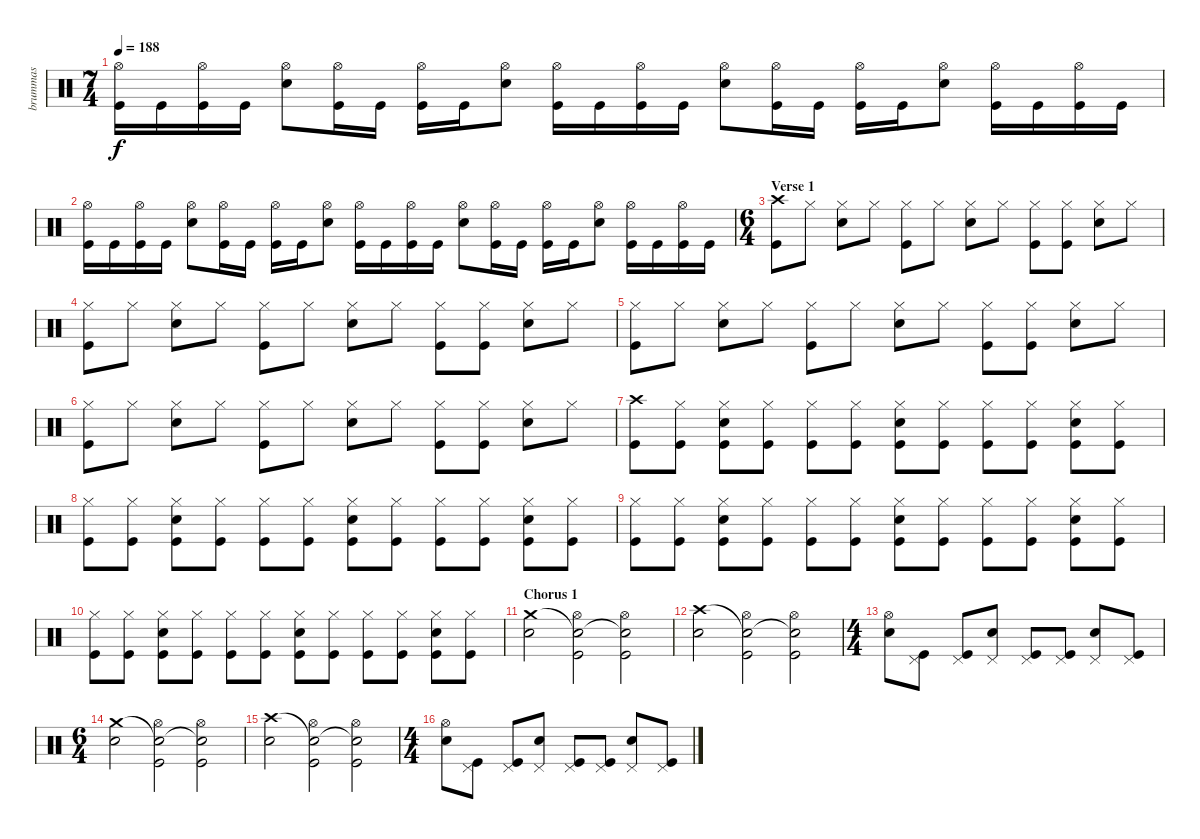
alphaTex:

\track ("brummas" "brummas") {instrument percussion}
\staff {score}
\articulation defaults
\ts (7 4)
\tempo 188
\clef neutral
\ks c
("Hi-Hat (open)" "Kick (hit)").16{dy f} "Kick (hit)".16 ("Hi-Hat (open)" "Kick (hit)").16 "Kick (hit)".16 ("Hi-Hat (open)" "Snare (hit) 2").8 ("Hi-Hat (open)" "Kick (hit)").16 "Kick (hit)".16 ("Hi-Hat (open)" "Kick (hit)").16 "Kick (hit)".16 ("Hi-Hat (open)" "Snare (hit) 2").8 ("Hi-Hat (open)" "Kick (hit)").16 "Kick (hit)".16 ("Hi-Hat (open)" "Kick (hit)").16 "Kick (hit)".16 ("Hi-Hat (open)" "Snare (hit) 2").8 ("Hi-Hat (open)" "Kick (hit)").16 "Kick (hit)".16 ("Hi-Hat (open)" "Kick (hit)").16 "Kick (hit)".16 ("Hi-Hat (open)" "Snare (hit) 2").8 ("Hi-Hat (open)" "Kick (hit)").16 "Kick (hit)".16 ("Hi-Hat (open)" "Kick (hit)").16 "Kick (hit)".16 |
("Hi-Hat (open)" "Kick (hit)").16 "Kick (hit)".16 ("Hi-Hat (open)" "Kick (hit)").16 "Kick (hit)".16 ("Hi-Hat (open)" "Snare (hit) 2").8 ("Hi-Hat (open)" "Kick (hit)").16 "Kick (hit)".16 ("Hi-Hat (open)" "Kick (hit)").16 "Kick (hit)".16 ("Hi-Hat (open)" "Snare (hit) 2").8 ("Hi-Hat (open)" "Kick (hit)").16 "Kick (hit)".16 ("Hi-Hat (open)" "Kick (hit)").16 "Kick (hit)".16 ("Hi-Hat (open)" "Snare (hit) 2").8 ("Hi-Hat (open)" "Kick (hit)").16 "Kick (hit)".16 ("Hi-Hat (open)" "Kick (hit)").16 "Kick (hit)".16 ("Hi-Hat (open)" "Snare (hit) 2").8 ("Hi-Hat (open)" "Kick (hit)").16 "Kick (hit)".16 ("Hi-Hat (open)" "Kick (hit)").16 "Kick (hit)".16 |
\ts (6 4)
\section ("" "Verse 1")
("Crash high (hit)" "Kick (hit)").8 "Hi-Hat (closed)".8 ("Hi-Hat (closed)" "Snare (hit) 2").8 "Hi-Hat (closed)".8 ("Hi-Hat (closed)" "Kick (hit)").8 "Hi-Hat (closed)".8 ("Hi-Hat (closed)" "Snare (hit) 2").8 "Hi-Hat (closed)".8 ("Hi-Hat (closed)" "Kick (hit)").8 ("Hi-Hat (closed)" "Kick (hit)").8 ("Hi-Hat (closed)" "Snare (hit) 2").8 "Hi-Hat (closed)".8 |
("Hi-Hat (closed)" "Kick (hit)").8 "Hi-Hat (closed)".8 ("Hi-Hat (closed)" "Snare (hit) 2").8 "Hi-Hat (closed)".8 ("Hi-Hat (closed)" "Kick (hit)").8 "Hi-Hat (closed)".8 ("Hi-Hat (closed)" "Snare (hit) 2").8 "Hi-Hat (closed)".8 ("Hi-Hat (closed)" "Kick (hit)").8 ("Hi-Hat (closed)" "Kick (hit)").8 ("Hi-Hat (closed)" "Snare (hit) 2").8 "Hi-Hat (closed)".8 |
("Hi-Hat (closed)" "Kick (hit)").8 "Hi-Hat (closed)".8 ("Hi-Hat (closed)" "Snare (hit) 2").8 "Hi-Hat (closed)".8 ("Hi-Hat (closed)" "Kick (hit)").8 "Hi-Hat (closed)".8 ("Hi-Hat (closed)" "Snare (hit) 2").8 "Hi-Hat (closed)".8 ("Hi-Hat (closed)" "Kick (hit)").8 ("Hi-Hat (closed)" "Kick (hit)").8 ("Hi-Hat (closed)" "Snare (hit) 2").8 "Hi-Hat (closed)".8 |
("Hi-Hat (closed)" "Kick (hit)").8 "Hi-Hat (closed)".8 ("Hi-Hat (closed)" "Snare (hit) 2").8 "Hi-Hat (closed)".8 ("Hi-Hat (closed)" "Kick (hit)").8 "Hi-Hat (closed)".8 ("Hi-Hat (closed)" "Snare (hit) 2").8 "Hi-Hat (closed)".8 ("Hi-Hat (closed)" "Kick (hit)").8 ("Hi-Hat (closed)" "Kick (hit)").8 ("Hi-Hat (closed)" "Snare (hit) 2").8 "Hi-Hat (closed)".8 |
("Crash high (hit)" "Kick (hit)").8 ("Hi-Hat (closed)" "Kick (hit)").8 ("Hi-Hat (closed)" "Snare (hit) 2" "Kick (hit)").8 ("Hi-Hat (closed)" "Kick (hit)").8 ("Hi-Hat (closed)" "Kick (hit)").8 ("Hi-Hat (closed)" "Kick (hit)").8 ("Hi-Hat (closed)" "Snare (hit) 2" "Kick (hit)").8 ("Hi-Hat (closed)" "Kick (hit)").8 ("Hi-Hat (closed)" "Kick (hit)").8 ("Hi-Hat (closed)" "Kick (hit)").8 ("Hi-Hat (closed)" "Snare (hit) 2" "Kick (hit)").8 ("Hi-Hat (closed)" "Kick (hit)").8 |
("Hi-Hat (closed)" "Kick (hit)").8 ("Hi-Hat (closed)" "Kick (hit)").8 ("Hi-Hat (closed)" "Snare (hit) 2" "Kick (hit)").8 ("Hi-Hat (closed)" "Kick (hit)").8 ("Hi-Hat (closed)" "Kick (hit)").8 ("Hi-Hat (closed)" "Kick (hit)").8 ("Hi-Hat (closed)" "Snare (hit) 2" "Kick (hit)").8 ("Hi-Hat (closed)" "Kick (hit)").8 ("Hi-Hat (closed)" "Kick (hit)").8 ("Hi-Hat (closed)" "Kick (hit)").8 ("Hi-Hat (closed)" "Snare (hit) 2" "Kick (hit)").8 ("Hi-Hat (closed)" "Kick (hit)").8 |
("Hi-Hat (closed)" "Kick (hit)").8 ("Hi-Hat (closed)" "Kick (hit)").8 ("Hi-Hat (closed)" "Snare (hit) 2" "Kick (hit)").8 ("Hi-Hat (closed)" "Kick (hit)").8 ("Hi-Hat (closed)" "Kick (hit)").8 ("Hi-Hat (closed)" "Kick (hit)").8 ("Hi-Hat (closed)" "Snare (hit) 2" "Kick (hit)").8 ("Hi-Hat (closed)" "Kick (hit)").8 ("Hi-Hat (closed)" "Kick (hit)").8 ("Hi-Hat (closed)" "Kick (hit)").8 ("Hi-Hat (closed)" "Snare (hit) 2" "Kick (hit)").8 ("Hi-Hat (closed)" "Kick (hit)").8 |
("Hi-Hat (closed)" "Kick (hit)").8 ("Hi-Hat (closed)" "Kick (hit)").8 ("Hi-Hat (closed)" "Snare (hit) 2" "Kick (hit)").8 ("Hi-Hat (closed)" "Kick (hit)").8 ("Hi-Hat (closed)" "Kick (hit)").8 ("Hi-Hat (closed)" "Kick (hit)").8 ("Hi-Hat (closed)" "Snare (hit) 2" "Kick (hit)").8 ("Hi-Hat (closed)" "Kick (hit)").8 ("Hi-Hat (closed)" "Kick (hit)").8 ("Hi-Hat (closed)" "Kick (hit)").8 ("Hi-Hat (closed)" "Snare (hit) 2" "Kick (hit)").8 ("Hi-Hat (closed)" "Kick (hit)").8 |
\section ("" "Chorus 1")
("Crash medium (hit)" "Snare (hit) 2").2 ("Snare (hit)"{t} "Hi-Hat (open)" "Kick (hit)").2 ("Snare (hit)"{t} "Hi-Hat (open)" "Kick (hit)").2 |
("Crash high (hit)" "Snare (hit) 2").2 ("Snare (hit)"{t} "Hi-Hat (open)" "Kick (hit)").2 ("Snare (hit)"{t} "Hi-Hat (open)" "Kick (hit)").2 |
\ts (4 4)
("Hi-Hat (open)" "Snare (hit) 2").8 ("Pedal Hi-Hat (hit)" "Kick (hit)").8 ("Pedal Hi-Hat (hit)" "Kick (hit)").8 ("Pedal Hi-Hat (hit)" "Snare (hit) 2").8 ("Pedal Hi-Hat (hit)" "Kick (hit)").8 ("Pedal Hi-Hat (hit)" "Kick (hit)").8 ("Pedal Hi-Hat (hit)" "Snare (hit) 2").8 ("Pedal Hi-Hat (hit)" "Kick (hit)").8 |
\ts (6 4)
("Crash medium (hit)" "Snare (hit) 2").2 ("Snare (hit)"{t} "Hi-Hat (open)" "Kick (hit)").2 ("Snare (hit)"{t} "Hi-Hat (open)" "Kick (hit)").2 |
("Crash high (hit)" "Snare (hit) 2").2 ("Snare (hit)"{t} "Hi-Hat (open)" "Kick (hit)").2 ("Snare (hit)"{t} "Hi-Hat (open)" "Kick (hit)").2 |
\ts (4 4)
("Hi-Hat (open)" "Snare (hit) 2").8 ("Pedal Hi-Hat (hit)" "Kick (hit)").8 ("Pedal Hi-Hat (hit)" "Kick (hit)").8 ("Pedal Hi-Hat (hit)" "Snare (hit) 2").8 ("Pedal Hi-Hat (hit)" "Kick (hit)").8 ("Pedal Hi-Hat (hit)" "Kick (hit)").8 ("Pedal Hi-Hat (hit)" "Snare (hit) 2").8 ("Pedal Hi-Hat (hit)" "Kick (hit)").8
